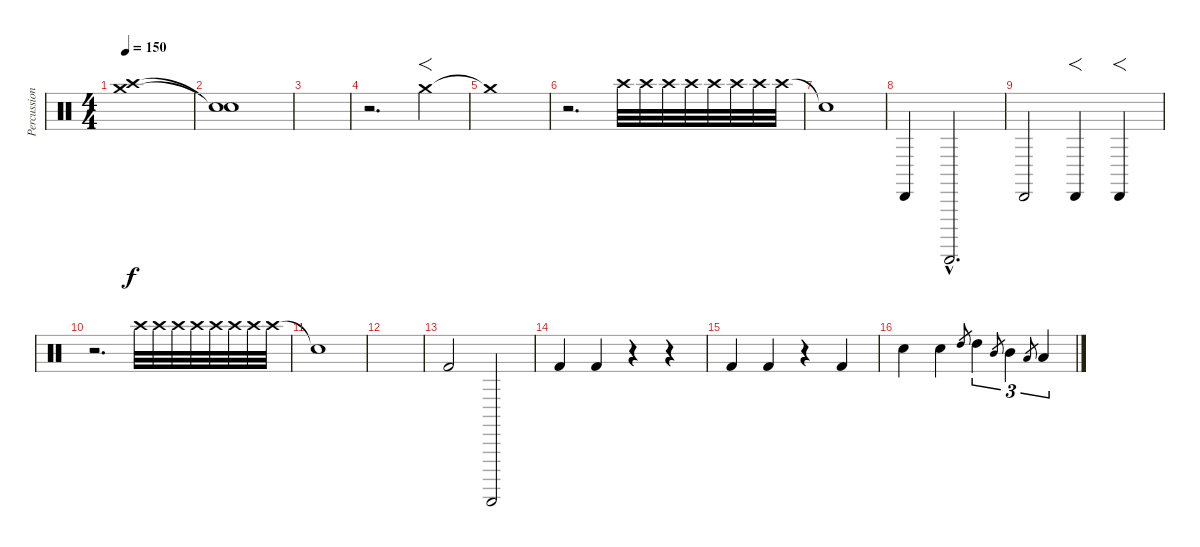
\track ("Percussions" "Percussion") {instrument percussion}
\staff {score}
\articulation defaults
\ts (4 4)
\tempo 150
\clef neutral
\ks c
("Crash medium (hit)" "Crash high (hit)").1{dy f} |
("Snare (hit)"{t} "Snare (hit)"{t}).1 |
|
r.2{d} "Crash medium (hit)".4{f} |
"Crash medium (hit)"{t}.1 |
r.2{d} "Crash high (hit)".32 "Crash high (hit)".32 "Crash high (hit)".32 "Crash high (hit)".32 "Crash high (hit)".32 "Crash high (hit)".32 "Crash high (hit)".32 "Crash high (hit)".32 |
"Snare (hit)"{t}.1 |
"Cabasa (hit)".4 "Guiro (scrap-return)"{hac}.2{d} |
"Cabasa (hit)".2 "Cabasa (hit)".4{f} "Cabasa (hit)".4{f} |
r.2{d} "Crash high (hit)".32 "Crash high (hit)".32 "Crash high (hit)".32 "Crash high (hit)".32 "Crash high (hit)".32 "Crash high (hit)".32 "Crash high (hit)".32 "Crash high (hit)".32 |
"Snare (hit)"{t}.1 |
|
"Kick (hit) 2".2 "Guiro (scrap-return)".2 |
"Kick (hit) 2".4 "Kick (hit) 2".4 r.4 r.4 |
"Kick (hit) 2".4 "Kick (hit) 2".4 r.4 "Kick (hit) 2".4 |
"Snare (hit) 2".4 "Snare (hit) 2".4 "High Tom (hit)".8{gr} "High Tom (hit)".4{tu (3 2)} "Mid Tom (hit)".8{gr} "Mid Tom (hit)".4{tu (3 2)} "Low Tom (hit)".8{gr} "Low Tom (hit)".4{tu (3 2)}
